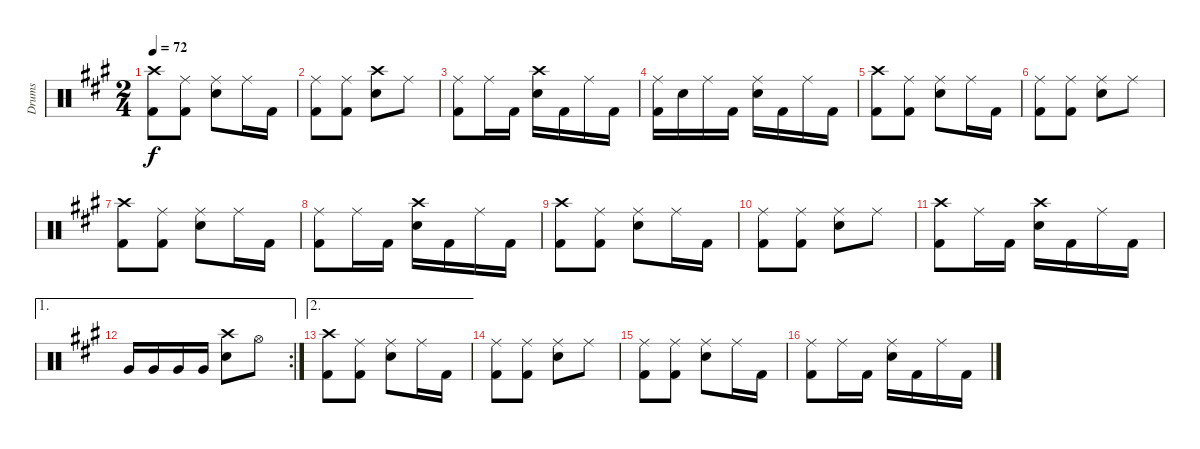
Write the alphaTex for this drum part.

\track ("Drums" "Drums") {instrument percussion}
\staff {score}
\articulation defaults
\ts (2 4)
\tempo 72
\clef neutral
\ks a
("Crash high (hit)" "Kick (hit) 2").8{dy f} ("Ride (middle)" "Kick (hit) 2").8 ("Ride (middle)" "Snare (hit) 2").8 "Ride (middle)".16 "Kick (hit) 2".16 |
("Ride (middle)" "Kick (hit) 2").8 ("Ride (middle)" "Kick (hit) 2").8 ("Crash high (hit)" "Snare (hit) 2").8 "Ride (middle)".8 |
("Ride (middle)" "Kick (hit) 2").8 "Ride (middle)".16 "Kick (hit) 2".16 ("Crash high (hit)" "Snare (hit) 2").16 "Kick (hit) 2".16 "Ride (middle)".16 "Kick (hit) 2".16 |
("Ride (middle)" "Kick (hit) 2").16 "Snare (hit) 2".16 "Ride (middle)".16 "Kick (hit) 2".16 ("Ride (middle)" "Snare (hit) 2").16 "Kick (hit) 2".16 "Ride (middle)".16 "Kick (hit) 2".16 |
("Crash high (hit)" "Kick (hit) 2").8 ("Ride (middle)" "Kick (hit) 2").8 ("Ride (middle)" "Snare (hit) 2").8 "Ride (middle)".16 "Kick (hit) 2".16 |
("Ride (middle)" "Kick (hit) 2").8 ("Ride (middle)" "Kick (hit) 2").8 ("Ride (middle)" "Snare (hit) 2").8 "Ride (middle)".8 |
("Crash high (hit)" "Kick (hit) 2").8 ("Ride (middle)" "Kick (hit) 2").8 ("Ride (middle)" "Snare (hit) 2").8 "Ride (middle)".16 "Kick (hit) 2".16 |
("Ride (middle)" "Kick (hit) 2").8 "Ride (middle)".16 "Kick (hit) 2".16 ("Crash high (hit)" "Snare (hit) 2").16 "Kick (hit) 2".16 "Ride (middle)".16 "Kick (hit) 2".16 |
("Crash high (hit)" "Kick (hit) 2").8 ("Ride (middle)" "Kick (hit) 2").8 ("Ride (middle)" "Snare (hit) 2").8 "Ride (middle)".16 "Kick (hit) 2".16 |
("Ride (middle)" "Kick (hit) 2").8 ("Ride (middle)" "Kick (hit) 2").8 ("Ride (middle)" "Snare (hit) 2").8 "Ride (middle)".8 |
("Crash high (hit)" "Kick (hit) 2").8 "Ride (middle)".16 "Kick (hit) 2".16 ("Crash high (hit)" "Snare (hit) 2").16 "Kick (hit) 2".16 "Ride (middle)".16 "Kick (hit) 2".16 |
\ae 1
\rc 2 "Very Low Tom (hit)".16 "Very Low Tom (hit)".16 "Very Low Tom (hit)".16 "Very Low Tom (hit)".16
("Crash high (hit)" "Snare (hit) 2").8 "Hi-Hat (open)".8 |
\ae 2
("Crash high (hit)" "Kick (hit) 2").8 ("Ride (middle)" "Kick (hit) 2").8 ("Ride (middle)" "Snare (hit) 2").8 "Ride (middle)".16 "Kick (hit) 2".16 |
("Ride (middle)" "Kick (hit) 2").8 ("Ride (middle)" "Kick (hit) 2").8 ("Ride (middle)" "Snare (hit) 2").8 "Ride (middle)".8 |
("Ride (middle)" "Kick (hit) 2").8 ("Ride (middle)" "Kick (hit) 2").8 ("Ride (middle)" "Snare (hit) 2").8 "Ride (middle)".16 "Kick (hit) 2".16 |
("Ride (middle)" "Kick (hit) 2").8 "Ride (middle)".16 "Kick (hit) 2".16 ("Ride (middle)" "Snare (hit) 2").16 "Kick (hit) 2".16 "Ride (middle)".16 "Kick (hit) 2".16
